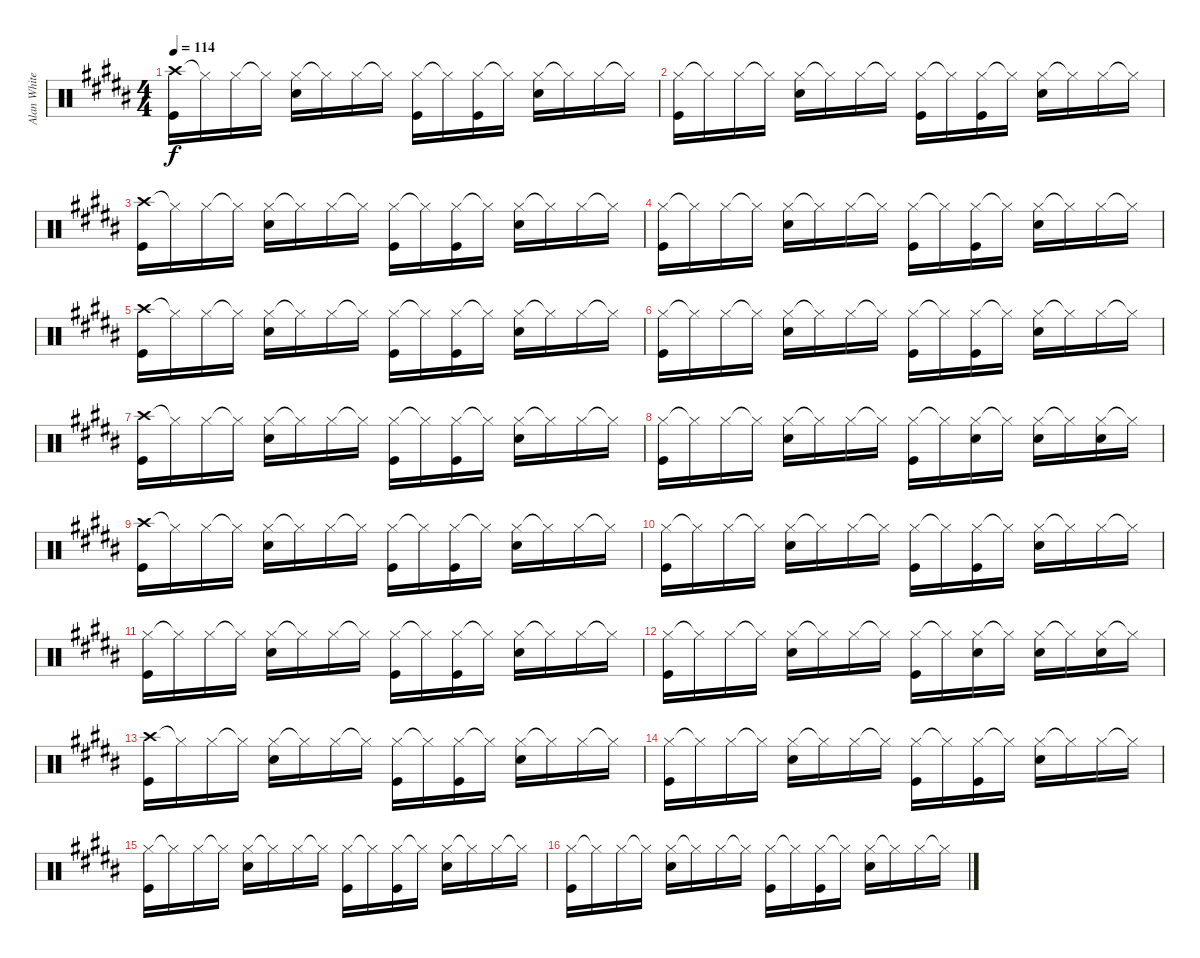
\track ("Alan White" "Alan White") {instrument percussion}
\staff {score}
\articulation defaults
\ts (4 4)
\tempo 114
\clef neutral
\ks b
("Crash high (hit)" "Kick (hit)").16{dy f} "Hi-Hat (closed)"{t}.16 "Hi-Hat (closed)".16 "Hi-Hat (closed)"{t}.16 ("Hi-Hat (closed)" "Snare (hit) 2").16 "Hi-Hat (closed)"{t}.16 "Hi-Hat (closed)".16 "Hi-Hat (closed)"{t}.16 ("Hi-Hat (closed)" "Kick (hit)").16 "Hi-Hat (closed)"{t}.16 ("Hi-Hat (closed)" "Kick (hit)").16 "Hi-Hat (closed)"{t}.16 ("Hi-Hat (closed)" "Snare (hit) 2").16 "Hi-Hat (closed)"{t}.16 "Hi-Hat (closed)".16 "Hi-Hat (closed)"{t}.16 |
("Hi-Hat (closed)" "Kick (hit)").16 "Hi-Hat (closed)"{t}.16 "Hi-Hat (closed)".16 "Hi-Hat (closed)"{t}.16 ("Hi-Hat (closed)" "Snare (hit) 2").16 "Hi-Hat (closed)"{t}.16 "Hi-Hat (closed)".16 "Hi-Hat (closed)"{t}.16 ("Hi-Hat (closed)" "Kick (hit)").16 "Hi-Hat (closed)"{t}.16 ("Hi-Hat (closed)" "Kick (hit)").16 "Hi-Hat (closed)"{t}.16 ("Hi-Hat (closed)" "Snare (hit) 2").16 "Hi-Hat (closed)"{t}.16 "Hi-Hat (closed)".16 "Hi-Hat (closed)"{t}.16 |
("Crash high (hit)" "Kick (hit)").16 "Hi-Hat (closed)"{t}.16 "Hi-Hat (closed)".16 "Hi-Hat (closed)"{t}.16 ("Hi-Hat (closed)" "Snare (hit) 2").16 "Hi-Hat (closed)"{t}.16 "Hi-Hat (closed)".16 "Hi-Hat (closed)"{t}.16 ("Hi-Hat (closed)" "Kick (hit)").16 "Hi-Hat (closed)"{t}.16 ("Hi-Hat (closed)" "Kick (hit)").16 "Hi-Hat (closed)"{t}.16 ("Hi-Hat (closed)" "Snare (hit) 2").16 "Hi-Hat (closed)"{t}.16 "Hi-Hat (closed)".16 "Hi-Hat (closed)"{t}.16 |
("Hi-Hat (closed)" "Kick (hit)").16 "Hi-Hat (closed)"{t}.16 "Hi-Hat (closed)".16 "Hi-Hat (closed)"{t}.16 ("Hi-Hat (closed)" "Snare (hit) 2").16 "Hi-Hat (closed)"{t}.16 "Hi-Hat (closed)".16 "Hi-Hat (closed)"{t}.16 ("Hi-Hat (closed)" "Kick (hit)").16 "Hi-Hat (closed)"{t}.16 ("Hi-Hat (closed)" "Kick (hit)").16 "Hi-Hat (closed)"{t}.16 ("Hi-Hat (closed)" "Snare (hit) 2").16 "Hi-Hat (closed)"{t}.16 "Hi-Hat (closed)".16 "Hi-Hat (closed)"{t}.16 |
("Crash high (hit)" "Kick (hit)").16 "Hi-Hat (closed)"{t}.16 "Hi-Hat (closed)".16 "Hi-Hat (closed)"{t}.16 ("Hi-Hat (closed)" "Snare (hit) 2").16 "Hi-Hat (closed)"{t}.16 "Hi-Hat (closed)".16 "Hi-Hat (closed)"{t}.16 ("Hi-Hat (closed)" "Kick (hit)").16 "Hi-Hat (closed)"{t}.16 ("Hi-Hat (closed)" "Kick (hit)").16 "Hi-Hat (closed)"{t}.16 ("Hi-Hat (closed)" "Snare (hit) 2").16 "Hi-Hat (closed)"{t}.16 "Hi-Hat (closed)".16 "Hi-Hat (closed)"{t}.16 |
("Hi-Hat (closed)" "Kick (hit)").16 "Hi-Hat (closed)"{t}.16 "Hi-Hat (closed)".16 "Hi-Hat (closed)"{t}.16 ("Hi-Hat (closed)" "Snare (hit) 2").16 "Hi-Hat (closed)"{t}.16 "Hi-Hat (closed)".16 "Hi-Hat (closed)"{t}.16 ("Hi-Hat (closed)" "Kick (hit)").16 "Hi-Hat (closed)"{t}.16 ("Hi-Hat (closed)" "Kick (hit)").16 "Hi-Hat (closed)"{t}.16 ("Hi-Hat (closed)" "Snare (hit) 2").16 "Hi-Hat (closed)"{t}.16 "Hi-Hat (closed)".16 "Hi-Hat (closed)"{t}.16 |
("Crash high (hit)" "Kick (hit)").16 "Hi-Hat (closed)"{t}.16 "Hi-Hat (closed)".16 "Hi-Hat (closed)"{t}.16 ("Hi-Hat (closed)" "Snare (hit) 2").16 "Hi-Hat (closed)"{t}.16 "Hi-Hat (closed)".16 "Hi-Hat (closed)"{t}.16 ("Hi-Hat (closed)" "Kick (hit)").16 "Hi-Hat (closed)"{t}.16 ("Hi-Hat (closed)" "Kick (hit)").16 "Hi-Hat (closed)"{t}.16 ("Hi-Hat (closed)" "Snare (hit) 2").16 "Hi-Hat (closed)"{t}.16 "Hi-Hat (closed)".16 "Hi-Hat (closed)"{t}.16 |
("Hi-Hat (closed)" "Kick (hit)").16 "Hi-Hat (closed)"{t}.16 "Hi-Hat (closed)".16 "Hi-Hat (closed)"{t}.16 ("Hi-Hat (closed)" "Snare (hit) 2").16 "Hi-Hat (closed)"{t}.16 "Hi-Hat (closed)".16 "Hi-Hat (closed)"{t}.16 ("Hi-Hat (closed)" "Kick (hit)").16 "Hi-Hat (closed)"{t}.16 ("Hi-Hat (closed)" "Snare (hit) 2").16 "Hi-Hat (closed)"{t}.16 ("Hi-Hat (closed)" "Snare (hit) 2").16 "Hi-Hat (closed)"{t}.16 ("Hi-Hat (closed)" "Snare (hit) 2").16 "Hi-Hat (closed)"{t}.16 |
("Crash high (hit)" "Kick (hit)").16 "Hi-Hat (closed)"{t}.16 "Hi-Hat (closed)".16 "Hi-Hat (closed)"{t}.16 ("Hi-Hat (closed)" "Snare (hit) 2").16 "Hi-Hat (closed)"{t}.16 "Hi-Hat (closed)".16 "Hi-Hat (closed)"{t}.16 ("Hi-Hat (closed)" "Kick (hit)").16 "Hi-Hat (closed)"{t}.16 ("Hi-Hat (closed)" "Kick (hit)").16 "Hi-Hat (closed)"{t}.16 ("Hi-Hat (closed)" "Snare (hit) 2").16 "Hi-Hat (closed)"{t}.16 "Hi-Hat (closed)".16 "Hi-Hat (closed)"{t}.16 |
("Hi-Hat (closed)" "Kick (hit)").16 "Hi-Hat (closed)"{t}.16 "Hi-Hat (closed)".16 "Hi-Hat (closed)"{t}.16 ("Hi-Hat (closed)" "Snare (hit) 2").16 "Hi-Hat (closed)"{t}.16 "Hi-Hat (closed)".16 "Hi-Hat (closed)"{t}.16 ("Hi-Hat (closed)" "Kick (hit)").16 "Hi-Hat (closed)"{t}.16 ("Hi-Hat (closed)" "Kick (hit)").16 "Hi-Hat (closed)"{t}.16 ("Hi-Hat (closed)" "Snare (hit) 2").16 "Hi-Hat (closed)"{t}.16 "Hi-Hat (closed)".16 "Hi-Hat (closed)"{t}.16 |
("Hi-Hat (closed)" "Kick (hit)").16 "Hi-Hat (closed)"{t}.16 "Hi-Hat (closed)".16 "Hi-Hat (closed)"{t}.16 ("Hi-Hat (closed)" "Snare (hit) 2").16 "Hi-Hat (closed)"{t}.16 "Hi-Hat (closed)".16 "Hi-Hat (closed)"{t}.16 ("Hi-Hat (closed)" "Kick (hit)").16 "Hi-Hat (closed)"{t}.16 ("Hi-Hat (closed)" "Kick (hit)").16 "Hi-Hat (closed)"{t}.16 ("Hi-Hat (closed)" "Snare (hit) 2").16 "Hi-Hat (closed)"{t}.16 "Hi-Hat (closed)".16 "Hi-Hat (closed)"{t}.16 |
("Hi-Hat (closed)" "Kick (hit)").16 "Hi-Hat (closed)"{t}.16 "Hi-Hat (closed)".16 "Hi-Hat (closed)"{t}.16 ("Hi-Hat (closed)" "Snare (hit) 2").16 "Hi-Hat (closed)"{t}.16 "Hi-Hat (closed)".16 "Hi-Hat (closed)"{t}.16 ("Hi-Hat (closed)" "Kick (hit)").16 "Hi-Hat (closed)"{t}.16 ("Hi-Hat (closed)" "Snare (hit) 2").16 "Hi-Hat (closed)"{t}.16 ("Hi-Hat (closed)" "Snare (hit) 2").16 "Hi-Hat (closed)"{t}.16 ("Hi-Hat (closed)" "Snare (hit) 2").16 "Hi-Hat (closed)"{t}.16 |
("Crash high (hit)" "Kick (hit)").16 "Hi-Hat (closed)"{t}.16 "Hi-Hat (closed)".16 "Hi-Hat (closed)"{t}.16 ("Hi-Hat (closed)" "Snare (hit) 2").16 "Hi-Hat (closed)"{t}.16 "Hi-Hat (closed)".16 "Hi-Hat (closed)"{t}.16 ("Hi-Hat (closed)" "Kick (hit)").16 "Hi-Hat (closed)"{t}.16 ("Hi-Hat (closed)" "Kick (hit)").16 "Hi-Hat (closed)"{t}.16 ("Hi-Hat (closed)" "Snare (hit) 2").16 "Hi-Hat (closed)"{t}.16 "Hi-Hat (closed)".16 "Hi-Hat (closed)"{t}.16 |
("Hi-Hat (closed)" "Kick (hit)").16 "Hi-Hat (closed)"{t}.16 "Hi-Hat (closed)".16 "Hi-Hat (closed)"{t}.16 ("Hi-Hat (closed)" "Snare (hit) 2").16 "Hi-Hat (closed)"{t}.16 "Hi-Hat (closed)".16 "Hi-Hat (closed)"{t}.16 ("Hi-Hat (closed)" "Kick (hit)").16 "Hi-Hat (closed)"{t}.16 ("Hi-Hat (closed)" "Kick (hit)").16 "Hi-Hat (closed)"{t}.16 ("Hi-Hat (closed)" "Snare (hit) 2").16 "Hi-Hat (closed)"{t}.16 "Hi-Hat (closed)".16 "Hi-Hat (closed)"{t}.16 |
("Hi-Hat (closed)" "Kick (hit)").16 "Hi-Hat (closed)"{t}.16 "Hi-Hat (closed)".16 "Hi-Hat (closed)"{t}.16 ("Hi-Hat (closed)" "Snare (hit) 2").16 "Hi-Hat (closed)"{t}.16 "Hi-Hat (closed)".16 "Hi-Hat (closed)"{t}.16 ("Hi-Hat (closed)" "Kick (hit)").16 "Hi-Hat (closed)"{t}.16 ("Hi-Hat (closed)" "Kick (hit)").16 "Hi-Hat (closed)"{t}.16 ("Hi-Hat (closed)" "Snare (hit) 2").16 "Hi-Hat (closed)"{t}.16 "Hi-Hat (closed)".16 "Hi-Hat (closed)"{t}.16 |
("Hi-Hat (closed)" "Kick (hit)").16 "Hi-Hat (closed)"{t}.16 "Hi-Hat (closed)".16 "Hi-Hat (closed)"{t}.16 ("Hi-Hat (closed)" "Snare (hit) 2").16 "Hi-Hat (closed)"{t}.16 "Hi-Hat (closed)".16 "Hi-Hat (closed)"{t}.16 ("Hi-Hat (closed)" "Kick (hit)").16 "Hi-Hat (closed)"{t}.16 ("Hi-Hat (closed)" "Kick (hit)").16 "Hi-Hat (closed)"{t}.16 ("Hi-Hat (closed)" "Snare (hit) 2").16 "Hi-Hat (closed)"{t}.16 "Hi-Hat (closed)".16 "Hi-Hat (closed)"{t}.16
